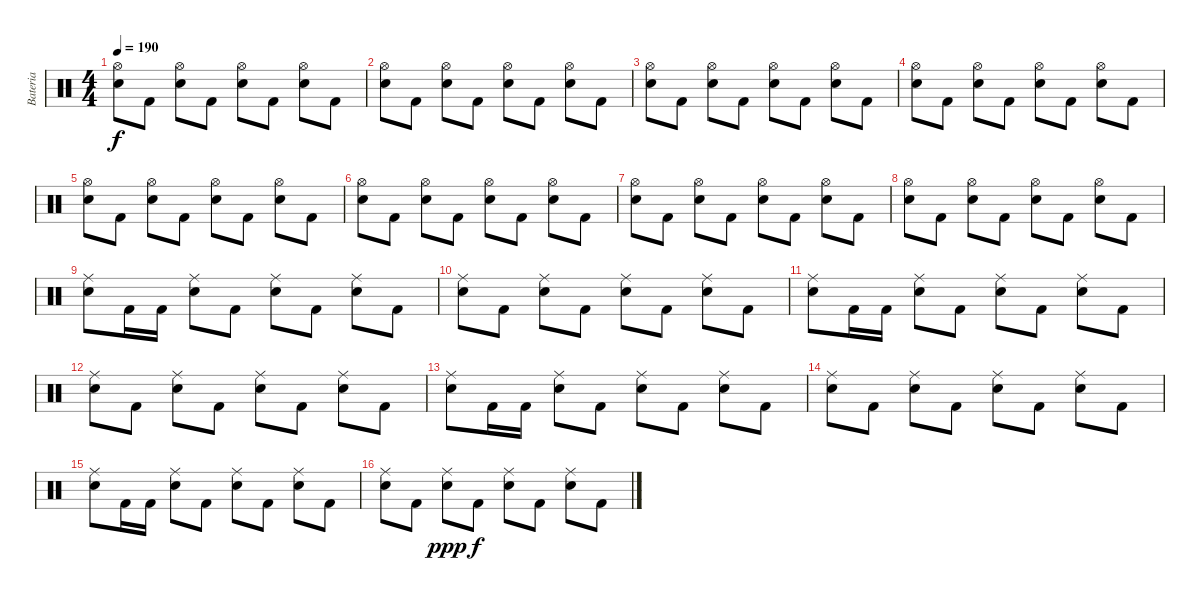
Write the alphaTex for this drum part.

\track ("Bateria" "Bateria") {instrument percussion}
\staff {score}
\articulation defaults
\ts (4 4)
\tempo 190
\clef neutral
\ks c
("Hi-Hat (open)" "Electric Snare (hit)").8{dy f} "Kick (hit) 2".8 ("Hi-Hat (open)" "Electric Snare (hit)").8 "Kick (hit) 2".8 ("Hi-Hat (open)" "Electric Snare (hit)").8 "Kick (hit) 2".8 ("Hi-Hat (open)" "Electric Snare (hit)").8 "Kick (hit) 2".8 |
("Hi-Hat (open)" "Electric Snare (hit)").8 "Kick (hit) 2".8 ("Hi-Hat (open)" "Electric Snare (hit)").8 "Kick (hit) 2".8 ("Hi-Hat (open)" "Electric Snare (hit)").8 "Kick (hit) 2".8 ("Hi-Hat (open)" "Electric Snare (hit)").8 "Kick (hit) 2".8 |
("Hi-Hat (open)" "Electric Snare (hit)").8 "Kick (hit) 2".8 ("Hi-Hat (open)" "Electric Snare (hit)").8 "Kick (hit) 2".8 ("Hi-Hat (open)" "Electric Snare (hit)").8 "Kick (hit) 2".8 ("Hi-Hat (open)" "Electric Snare (hit)").8 "Kick (hit) 2".8 |
("Hi-Hat (open)" "Electric Snare (hit)").8 "Kick (hit) 2".8 ("Hi-Hat (open)" "Electric Snare (hit)").8 "Kick (hit) 2".8 ("Hi-Hat (open)" "Electric Snare (hit)").8 "Kick (hit) 2".8 ("Hi-Hat (open)" "Electric Snare (hit)").8 "Kick (hit) 2".8 |
("Hi-Hat (open)" "Electric Snare (hit)").8 "Kick (hit) 2".8 ("Hi-Hat (open)" "Electric Snare (hit)").8 "Kick (hit) 2".8 ("Hi-Hat (open)" "Electric Snare (hit)").8 "Kick (hit) 2".8 ("Hi-Hat (open)" "Electric Snare (hit)").8 "Kick (hit) 2".8 |
("Hi-Hat (open)" "Electric Snare (hit)").8 "Kick (hit) 2".8 ("Hi-Hat (open)" "Electric Snare (hit)").8 "Kick (hit) 2".8 ("Hi-Hat (open)" "Electric Snare (hit)").8 "Kick (hit) 2".8 ("Hi-Hat (open)" "Electric Snare (hit)").8 "Kick (hit) 2".8 |
("Hi-Hat (open)" "Electric Snare (hit)").8 "Kick (hit) 2".8 ("Hi-Hat (open)" "Electric Snare (hit)").8 "Kick (hit) 2".8 ("Hi-Hat (open)" "Electric Snare (hit)").8 "Kick (hit) 2".8 ("Hi-Hat (open)" "Electric Snare (hit)").8 "Kick (hit) 2".8 |
("Hi-Hat (open)" "Electric Snare (hit)").8 "Kick (hit) 2".8 ("Hi-Hat (open)" "Electric Snare (hit)").8 "Kick (hit) 2".8 ("Hi-Hat (open)" "Electric Snare (hit)").8 "Kick (hit) 2".8 ("Hi-Hat (open)" "Electric Snare (hit)").8 "Kick (hit) 2".8 |
("Ride (middle)" "Electric Snare (hit)").8 "Kick (hit) 2".16 "Kick (hit) 2".16 ("Ride (middle)" "Electric Snare (hit)").8 "Kick (hit) 2".8 ("Ride (middle)" "Electric Snare (hit)").8 "Kick (hit) 2".8 ("Ride (middle)" "Electric Snare (hit)").8 "Kick (hit) 2".8 |
("Ride (middle)" "Electric Snare (hit)").8 "Kick (hit) 2".8 ("Ride (middle)" "Electric Snare (hit)").8 "Kick (hit) 2".8 ("Ride (middle)" "Electric Snare (hit)").8 "Kick (hit) 2".8 ("Ride (middle)" "Electric Snare (hit)").8 "Kick (hit) 2".8 |
("Ride (middle)" "Electric Snare (hit)").8 "Kick (hit) 2".16 "Kick (hit) 2".16 ("Ride (middle)" "Electric Snare (hit)").8 "Kick (hit) 2".8 ("Ride (middle)" "Electric Snare (hit)").8 "Kick (hit) 2".8 ("Ride (middle)" "Electric Snare (hit)").8 "Kick (hit) 2".8 |
("Ride (middle)" "Electric Snare (hit)").8 "Kick (hit) 2".8 ("Ride (middle)" "Electric Snare (hit)").8 "Kick (hit) 2".8 ("Ride (middle)" "Electric Snare (hit)").8 "Kick (hit) 2".8 ("Ride (middle)" "Electric Snare (hit)").8 "Kick (hit) 2".8 |
("Ride (middle)" "Electric Snare (hit)").8 "Kick (hit) 2".16 "Kick (hit) 2".16 ("Ride (middle)" "Electric Snare (hit)").8 "Kick (hit) 2".8 ("Ride (middle)" "Electric Snare (hit)").8 "Kick (hit) 2".8 ("Ride (middle)" "Electric Snare (hit)").8 "Kick (hit) 2".8 |
("Ride (middle)" "Electric Snare (hit)").8 "Kick (hit) 2".8 ("Ride (middle)" "Electric Snare (hit)").8 "Kick (hit) 2".8 ("Ride (middle)" "Electric Snare (hit)").8 "Kick (hit) 2".8 ("Ride (middle)" "Electric Snare (hit)").8 "Kick (hit) 2".8 |
("Ride (middle)" "Electric Snare (hit)").8 "Kick (hit) 2".16 "Kick (hit) 2".16 ("Ride (middle)" "Electric Snare (hit)").8 "Kick (hit) 2".8 ("Ride (middle)" "Electric Snare (hit)").8 "Kick (hit) 2".8 ("Ride (middle)" "Electric Snare (hit)").8 "Kick (hit) 2".8 |
("Ride (middle)" "Electric Snare (hit)").8 "Kick (hit) 2".8 ("Ride (middle)" "Electric Snare (hit)").8{dy ppp} "Kick (hit) 2".8{dy f} ("Ride (middle)" "Electric Snare (hit)").8 "Kick (hit) 2".8 ("Ride (middle)" "Electric Snare (hit)").8 "Kick (hit) 2".8
